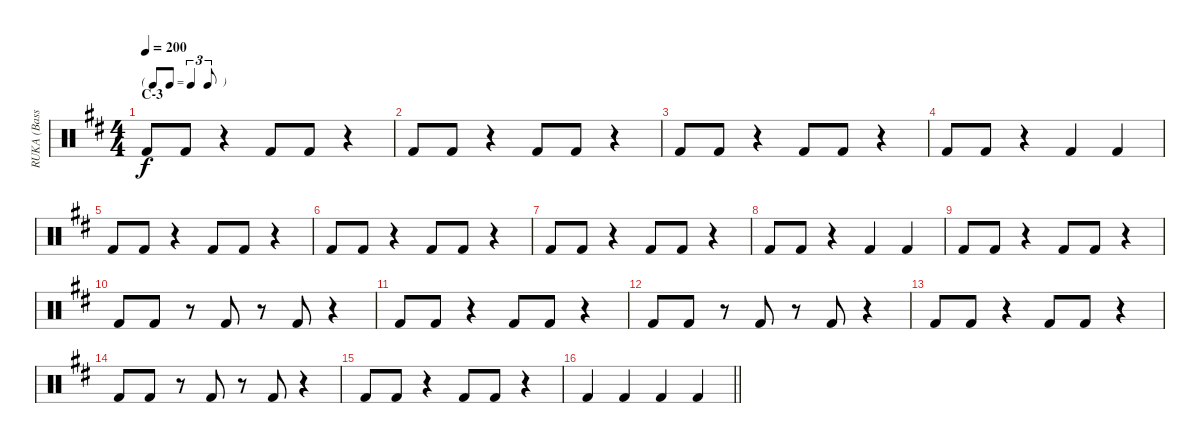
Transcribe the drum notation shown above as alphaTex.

\track ("RUKA (Bass)" "RUKA (Bass") {instrument percussion}
\staff {score}
\articulation defaults
\ts (4 4)
\tf triplet8th
\section ("" "C-3")
\tempo 200
\clef neutral
\ks d "Kick (hit) 2".8{dy f} "Kick (hit) 2".8
r.4 "Kick (hit) 2".8 "Kick (hit) 2".8 r.4 |
"Kick (hit) 2".8 "Kick (hit) 2".8 r.4 "Kick (hit) 2".8 "Kick (hit) 2".8 r.4 |
"Kick (hit) 2".8 "Kick (hit) 2".8 r.4 "Kick (hit) 2".8 "Kick (hit) 2".8 r.4 |
"Kick (hit) 2".8 "Kick (hit) 2".8 r.4 "Kick (hit) 2".4 "Kick (hit) 2".4 |
"Kick (hit) 2".8 "Kick (hit) 2".8 r.4 "Kick (hit) 2".8 "Kick (hit) 2".8 r.4 |
"Kick (hit) 2".8 "Kick (hit) 2".8 r.4 "Kick (hit) 2".8 "Kick (hit) 2".8 r.4 |
"Kick (hit) 2".8 "Kick (hit) 2".8 r.4 "Kick (hit) 2".8 "Kick (hit) 2".8 r.4 |
"Kick (hit) 2".8 "Kick (hit) 2".8 r.4 "Kick (hit) 2".4 "Kick (hit) 2".4 |
"Kick (hit) 2".8 "Kick (hit) 2".8 r.4 "Kick (hit) 2".8 "Kick (hit) 2".8 r.4 |
"Kick (hit) 2".8 "Kick (hit) 2".8 r.8 "Kick (hit) 2".8 r.8 "Kick (hit) 2".8 r.4 |
"Kick (hit) 2".8 "Kick (hit) 2".8 r.4 "Kick (hit) 2".8 "Kick (hit) 2".8 r.4 |
"Kick (hit) 2".8 "Kick (hit) 2".8 r.8 "Kick (hit) 2".8 r.8 "Kick (hit) 2".8 r.4 |
"Kick (hit) 2".8 "Kick (hit) 2".8 r.4 "Kick (hit) 2".8 "Kick (hit) 2".8 r.4 |
"Kick (hit) 2".8 "Kick (hit) 2".8 r.8 "Kick (hit) 2".8 r.8 "Kick (hit) 2".8 r.4 |
"Kick (hit) 2".8 "Kick (hit) 2".8 r.4 "Kick (hit) 2".8 "Kick (hit) 2".8 r.4 |
\barLineRight lightlight "Kick (hit) 2".4 "Kick (hit) 2".4 "Kick (hit) 2".4 "Kick (hit) 2".4
